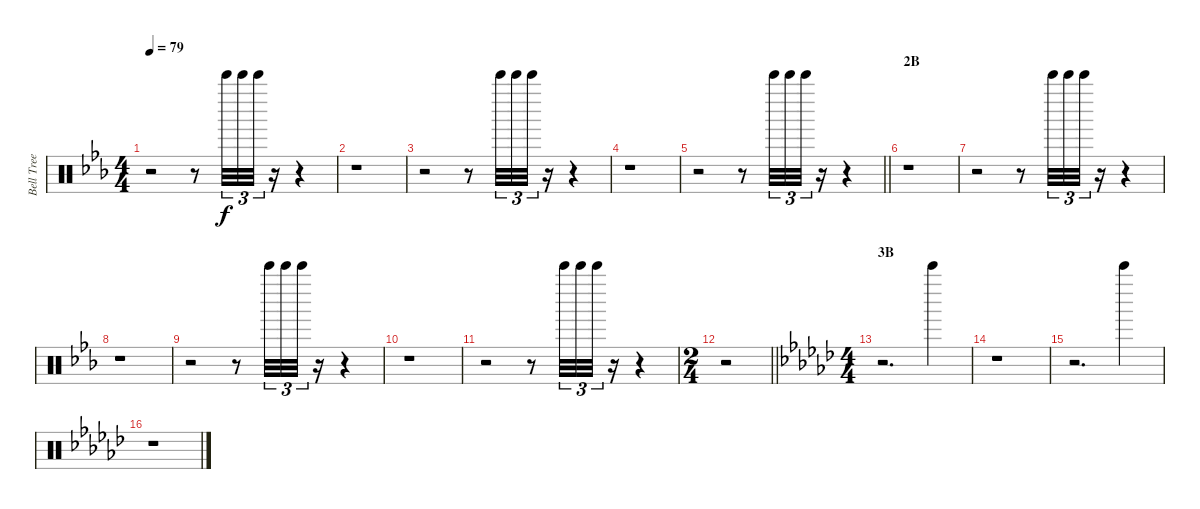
\track ("Bell Tree" "Bell Tree") {instrument percussion}
\staff {score}
\articulation defaults
\ts (4 4)
\tempo 79
\clef neutral
\ks eb
r.2{dy f} r.8 "Bell Tree (hit)".32{tu (3 2)} "Bell Tree (hit)".32{tu (3 2)} "Bell Tree (hit)".32{tu (3 2)} r.16 r.4 |
r.1 |
r.2 r.8 "Bell Tree (hit)".32{tu (3 2)} "Bell Tree (hit)".32{tu (3 2)} "Bell Tree (hit)".32{tu (3 2)} r.16 r.4 |
r.1 |
\barLineRight lightlight
r.2 r.8 "Bell Tree (hit)".32{tu (3 2)} "Bell Tree (hit)".32{tu (3 2)} "Bell Tree (hit)".32{tu (3 2)} r.16 r.4 |
\section ("" "2B")
r.1 |
r.2 r.8 "Bell Tree (hit)".32{tu (3 2)} "Bell Tree (hit)".32{tu (3 2)} "Bell Tree (hit)".32{tu (3 2)} r.16 r.4 |
r.1 |
r.2 r.8 "Bell Tree (hit)".32{tu (3 2)} "Bell Tree (hit)".32{tu (3 2)} "Bell Tree (hit)".32{tu (3 2)} r.16 r.4 |
r.1 |
r.2 r.8 "Bell Tree (hit)".32{tu (3 2)} "Bell Tree (hit)".32{tu (3 2)} "Bell Tree (hit)".32{tu (3 2)} r.16 r.4 |
\ts (2 4)
\barLineRight lightlight
r.2 |
\ts (4 4)
\section ("" "3B")
\ks gb
r.2{d} "Bell Tree (hit)".4 |
r.1 |
r.2{d} "Bell Tree (hit)".4 |
r.1
